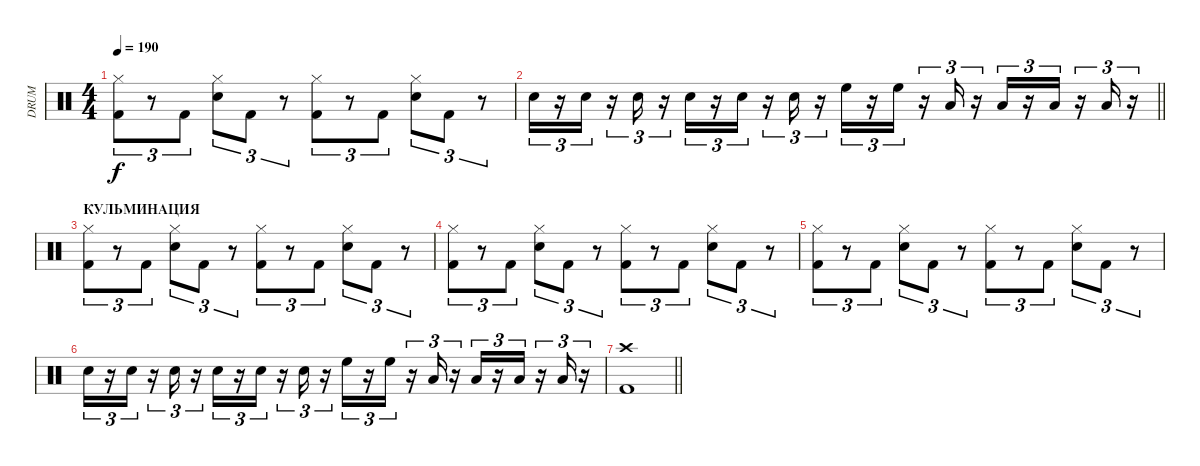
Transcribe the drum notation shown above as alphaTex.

\track ("DRUM" "DRUM") {instrument percussion bank 127}
\staff {score}
\articulation defaults
\ts (4 4)
\tempo 190
\clef neutral
\ks c
("Hi-Hat (closed)" "Kick (hit) 2").8{tu (3 2) dy f} r.8{tu (3 2)} "Kick (hit) 2".8{tu (3 2)} ("Hi-Hat (closed)" "Electric Snare (hit)").8{tu (3 2)} "Kick (hit) 2".8{tu (3 2)} r.8{tu (3 2)} ("Hi-Hat (closed)" "Kick (hit) 2").8{tu (3 2)} r.8{tu (3 2)} "Kick (hit) 2".8{tu (3 2)} ("Hi-Hat (closed)" "Electric Snare (hit)").8{tu (3 2)} "Kick (hit) 2".8{tu (3 2)} r.8{tu (3 2)} |
\barLineRight lightlight "Electric Snare (hit)".16{tu (3 2)}
r.16{tu (3 2)} "Electric Snare (hit)".16{tu (3 2)} r.16{tu (3 2)} "Electric Snare (hit)".16{tu (3 2)} r.16{tu (3 2)} "Electric Snare (hit)".16{tu (3 2)} r.16{tu (3 2)} "Electric Snare (hit)".16{tu (3 2)} r.16{tu (3 2)} "Electric Snare (hit)".16{tu (3 2)} r.16{tu (3 2)} "High Floor Tom (hit)".16{tu (3 2)} r.16{tu (3 2)} "High Floor Tom (hit)".16{tu (3 2)} r.16{tu (3 2)} "Low Tom (hit)".16{tu (3 2)} r.16{tu (3 2)} "Low Tom (hit)".16{tu (3 2)} r.16{tu (3 2)} "Low Tom (hit)".16{tu (3 2)} r.16{tu (3 2)} "Low Tom (hit)".16{tu (3 2)} r.16{tu (3 2)} |
\section ("" "КУЛЬМИНАЦИЯ")
("Hi-Hat (closed)" "Kick (hit) 2").8{tu (3 2)} r.8{tu (3 2)} "Kick (hit) 2".8{tu (3 2)} ("Hi-Hat (closed)" "Electric Snare (hit)").8{tu (3 2)} "Kick (hit) 2".8{tu (3 2)} r.8{tu (3 2)} ("Hi-Hat (closed)" "Kick (hit) 2").8{tu (3 2)} r.8{tu (3 2)} "Kick (hit) 2".8{tu (3 2)} ("Hi-Hat (closed)" "Electric Snare (hit)").8{tu (3 2)} "Kick (hit) 2".8{tu (3 2)} r.8{tu (3 2)} |
("Hi-Hat (closed)" "Kick (hit) 2").8{tu (3 2)} r.8{tu (3 2)} "Kick (hit) 2".8{tu (3 2)} ("Hi-Hat (closed)" "Electric Snare (hit)").8{tu (3 2)} "Kick (hit) 2".8{tu (3 2)} r.8{tu (3 2)} ("Hi-Hat (closed)" "Kick (hit) 2").8{tu (3 2)} r.8{tu (3 2)} "Kick (hit) 2".8{tu (3 2)} ("Hi-Hat (closed)" "Electric Snare (hit)").8{tu (3 2)} "Kick (hit) 2".8{tu (3 2)} r.8{tu (3 2)} |
("Hi-Hat (closed)" "Kick (hit) 2").8{tu (3 2)} r.8{tu (3 2)} "Kick (hit) 2".8{tu (3 2)} ("Hi-Hat (closed)" "Electric Snare (hit)").8{tu (3 2)} "Kick (hit) 2".8{tu (3 2)} r.8{tu (3 2)} ("Hi-Hat (closed)" "Kick (hit) 2").8{tu (3 2)} r.8{tu (3 2)} "Kick (hit) 2".8{tu (3 2)} ("Hi-Hat (closed)" "Electric Snare (hit)").8{tu (3 2)} "Kick (hit) 2".8{tu (3 2)} r.8{tu (3 2)} |
"Electric Snare (hit)".16{tu (3 2)} r.16{tu (3 2)} "Electric Snare (hit)".16{tu (3 2)} r.16{tu (3 2)} "Electric Snare (hit)".16{tu (3 2)} r.16{tu (3 2)} "Electric Snare (hit)".16{tu (3 2)} r.16{tu (3 2)} "Electric Snare (hit)".16{tu (3 2)} r.16{tu (3 2)} "Electric Snare (hit)".16{tu (3 2)} r.16{tu (3 2)} "High Floor Tom (hit)".16{tu (3 2)} r.16{tu (3 2)} "High Floor Tom (hit)".16{tu (3 2)} r.16{tu (3 2)} "Low Tom (hit)".16{tu (3 2)} r.16{tu (3 2)} "Low Tom (hit)".16{tu (3 2)} r.16{tu (3 2)} "Low Tom (hit)".16{tu (3 2)} r.16{tu (3 2)} "Low Tom (hit)".16{tu (3 2)} r.16{tu (3 2)} |
\barLineRight lightlight
("Crash high (hit)" "Kick (hit) 2").1
